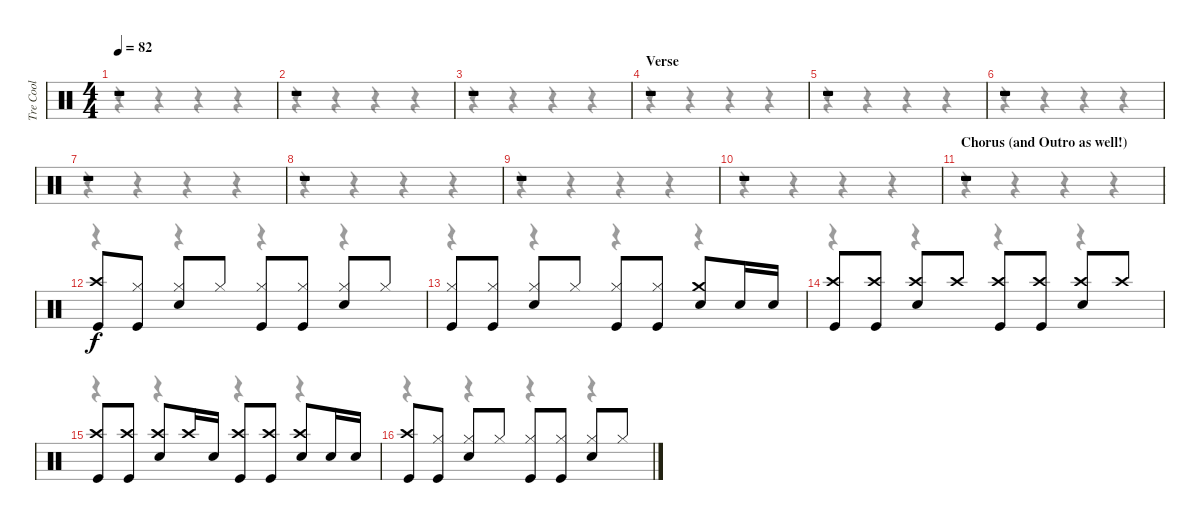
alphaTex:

\track ("Tre Cool" "Tre Cool") {instrument percussion}
\staff {score}
\articulation defaults
\voice
\ts (4 4)
\tempo 82
\clef neutral
\ks c
r.1{dy f} |
r.1 |
r.1 |
\section ("" "Verse ")
r.1 |
r.1 |
r.1 |
r.1 |
r.1 |
r.1 |
r.1 |
\section ("" "Chorus (and Outro as well!)")
r.1 |
("Crash high (hit)" "Kick (hit)").8 ("Hi-Hat (closed)" "Kick (hit)").8 ("Hi-Hat (closed)" "Snare (hit) 2").8 "Hi-Hat (closed)".8 ("Hi-Hat (closed)" "Kick (hit)").8 ("Hi-Hat (closed)" "Kick (hit)").8 ("Hi-Hat (closed)" "Snare (hit) 2").8 "Hi-Hat (closed)".8 |
("Hi-Hat (closed)" "Kick (hit)").8 ("Hi-Hat (closed)" "Kick (hit)").8 ("Hi-Hat (closed)" "Snare (hit) 2").8 "Hi-Hat (closed)".8 ("Hi-Hat (closed)" "Kick (hit)").8 ("Hi-Hat (closed)" "Kick (hit)").8 ("Crash medium (hit)" "Snare (hit) 2").8 "Snare (hit) 2".16 "Snare (hit) 2".16 |
("Crash high (hit)" "Kick (hit)").8 ("Crash high (hit)" "Kick (hit)").8 ("Crash high (hit)" "Snare (hit) 2").8 "Crash high (hit)".8 ("Crash high (hit)" "Kick (hit)").8 ("Crash high (hit)" "Kick (hit)").8 ("Crash high (hit)" "Snare (hit) 2").8 "Crash high (hit)".8 |
("Crash high (hit)" "Kick (hit)").8 ("Crash high (hit)" "Kick (hit)").8 ("Crash high (hit)" "Snare (hit) 2").8 "Crash high (hit)".16 "Snare (hit) 2".16 ("Crash high (hit)" "Kick (hit)").8 ("Crash high (hit)" "Kick (hit)").8 ("Crash high (hit)" "Snare (hit) 2").8 "Snare (hit) 2".16 "Snare (hit) 2".16 |
("Crash high (hit)" "Kick (hit)").8 ("Hi-Hat (closed)" "Kick (hit)").8 ("Hi-Hat (closed)" "Snare (hit) 2").8 "Hi-Hat (closed)".8 ("Hi-Hat (closed)" "Kick (hit)").8 ("Hi-Hat (closed)" "Kick (hit)").8 ("Hi-Hat (closed)" "Snare (hit) 2").8 "Hi-Hat (closed)".8
\voice
\clef neutral
\ottava regular
\simile none
\ks c
r.4{dy f} r.4 r.4 r.4 |
r.4 r.4 r.4 r.4 |
r.4 r.4 r.4 r.4 |
r.4 r.4 r.4 r.4 |
r.4 r.4 r.4 r.4 |
r.4 r.4 r.4 r.4 |
r.4 r.4 r.4 r.4 |
r.4 r.4 r.4 r.4 |
r.4 r.4 r.4 r.4 |
r.4 r.4 r.4 r.4 |
r.4 r.4 r.4 r.4 |
r.4 r.4 r.4 r.4 |
r.4 r.4 r.4 r.4 |
r.4 r.4 r.4 r.4 |
r.4 r.4 r.4 r.4 |
r.4 r.4 r.4 r.4
